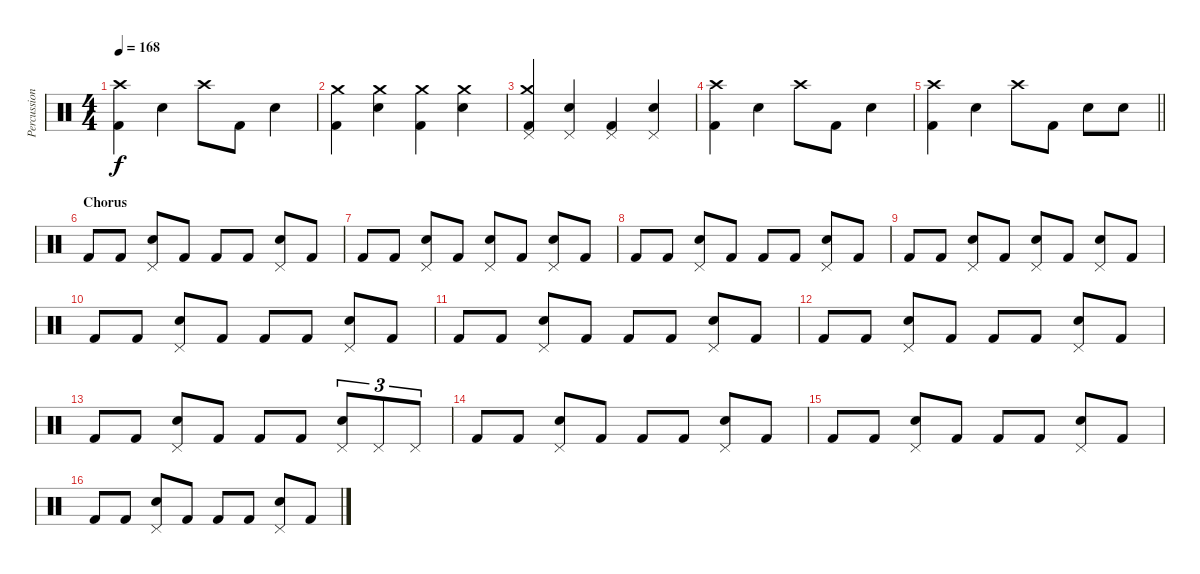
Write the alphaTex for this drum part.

\track ("Percussion" "Percussion") {instrument percussion}
\staff {score}
\articulation defaults
\ts (4 4)
\tempo 168
\clef neutral
\ks c
("Crash high (hit)" "Kick (hit) 2").4{dy f} "Electric Snare (hit)".4 "Crash high (hit)".8 "Kick (hit) 2".8 "Electric Snare (hit)".4 |
("Crash medium (hit)" "Kick (hit) 2").4 ("Crash medium (hit)" "Electric Snare (hit)").4 ("Crash medium (hit)" "Kick (hit) 2").4 ("Crash medium (hit)" "Electric Snare (hit)").4 |
("Pedal Hi-Hat (hit)" "Crash medium (hit)" "Kick (hit) 2").4 ("Pedal Hi-Hat (hit)" "Electric Snare (hit)").4 ("Pedal Hi-Hat (hit)" "Kick (hit) 2").4 ("Pedal Hi-Hat (hit)" "Electric Snare (hit)").4 |
("Crash high (hit)" "Kick (hit) 2").4 "Electric Snare (hit)".4 "Crash high (hit)".8 "Kick (hit) 2".8 "Electric Snare (hit)".4 |
\barLineRight lightlight
("Crash high (hit)" "Kick (hit) 2").4 "Electric Snare (hit)".4 "Crash high (hit)".8 "Kick (hit) 2".8 "Electric Snare (hit)".8 "Electric Snare (hit)".8 |
\section ("" "Chorus")
"Kick (hit) 2".8 "Kick (hit) 2".8 ("Pedal Hi-Hat (hit)" "Electric Snare (hit)").8 "Kick (hit) 2".8 "Kick (hit) 2".8 "Kick (hit) 2".8 ("Pedal Hi-Hat (hit)" "Electric Snare (hit)").8 "Kick (hit) 2".8 |
"Kick (hit) 2".8 "Kick (hit) 2".8 ("Pedal Hi-Hat (hit)" "Electric Snare (hit)").8 "Kick (hit) 2".8 ("Pedal Hi-Hat (hit)" "Electric Snare (hit)").8 "Kick (hit) 2".8 ("Pedal Hi-Hat (hit)" "Electric Snare (hit)").8 "Kick (hit) 2".8 |
"Kick (hit) 2".8 "Kick (hit) 2".8 ("Pedal Hi-Hat (hit)" "Electric Snare (hit)").8 "Kick (hit) 2".8 "Kick (hit) 2".8 "Kick (hit) 2".8 ("Pedal Hi-Hat (hit)" "Electric Snare (hit)").8 "Kick (hit) 2".8 |
"Kick (hit) 2".8 "Kick (hit) 2".8 ("Pedal Hi-Hat (hit)" "Electric Snare (hit)").8 "Kick (hit) 2".8 ("Pedal Hi-Hat (hit)" "Electric Snare (hit)").8 "Kick (hit) 2".8 ("Pedal Hi-Hat (hit)" "Electric Snare (hit)").8 "Kick (hit) 2".8 |
"Kick (hit) 2".8 "Kick (hit) 2".8 ("Pedal Hi-Hat (hit)" "Electric Snare (hit)").8 "Kick (hit) 2".8 "Kick (hit) 2".8 "Kick (hit) 2".8 ("Pedal Hi-Hat (hit)" "Electric Snare (hit)").8 "Kick (hit) 2".8 |
"Kick (hit) 2".8 "Kick (hit) 2".8 ("Pedal Hi-Hat (hit)" "Electric Snare (hit)").8 "Kick (hit) 2".8 "Kick (hit) 2".8 "Kick (hit) 2".8 ("Pedal Hi-Hat (hit)" "Electric Snare (hit)").8 "Kick (hit) 2".8 |
"Kick (hit) 2".8 "Kick (hit) 2".8 ("Pedal Hi-Hat (hit)" "Electric Snare (hit)").8 "Kick (hit) 2".8 "Kick (hit) 2".8 "Kick (hit) 2".8 ("Pedal Hi-Hat (hit)" "Electric Snare (hit)").8 "Kick (hit) 2".8 |
"Kick (hit) 2".8 "Kick (hit) 2".8 ("Pedal Hi-Hat (hit)" "Electric Snare (hit)").8 "Kick (hit) 2".8 "Kick (hit) 2".8 "Kick (hit) 2".8 ("Pedal Hi-Hat (hit)" "Electric Snare (hit)").8{tu (3 2)} "Pedal Hi-Hat (hit)".8{tu (3 2)} "Pedal Hi-Hat (hit)".8{tu (3 2)} |
"Kick (hit) 2".8 "Kick (hit) 2".8 ("Pedal Hi-Hat (hit)" "Electric Snare (hit)").8 "Kick (hit) 2".8 "Kick (hit) 2".8 "Kick (hit) 2".8 ("Pedal Hi-Hat (hit)" "Electric Snare (hit)").8 "Kick (hit) 2".8 |
"Kick (hit) 2".8 "Kick (hit) 2".8 ("Pedal Hi-Hat (hit)" "Electric Snare (hit)").8 "Kick (hit) 2".8 "Kick (hit) 2".8 "Kick (hit) 2".8 ("Pedal Hi-Hat (hit)" "Electric Snare (hit)").8 "Kick (hit) 2".8 |
"Kick (hit) 2".8 "Kick (hit) 2".8 ("Pedal Hi-Hat (hit)" "Electric Snare (hit)").8 "Kick (hit) 2".8 "Kick (hit) 2".8 "Kick (hit) 2".8 ("Pedal Hi-Hat (hit)" "Electric Snare (hit)").8 "Kick (hit) 2".8
